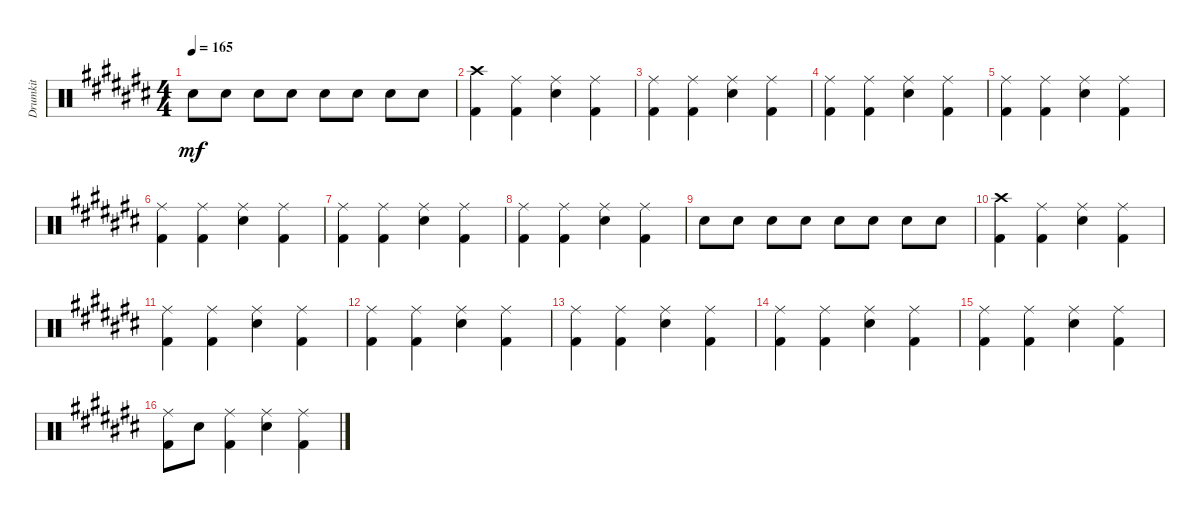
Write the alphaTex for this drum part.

\track ("Drumkit" "Drumkit") {instrument percussion}
\staff {score}
\articulation defaults
\ts (4 4)
\tempo 165
\clef neutral
\ks c# "Snare (hit) 2".8{dy mf} "Snare (hit) 2".8 "Snare (hit) 2".8 "Snare (hit) 2".8 "Snare (hit) 2".8 "Snare (hit) 2".8 "Snare (hit) 2".8 "Snare (hit) 2".8
|
("Kick (hit) 2" "Crash high (hit)").4 ("Kick (hit) 2" "Ride (middle)").4 ("Snare (hit) 2" "Ride (middle)").4 ("Kick (hit) 2" "Ride (middle)").4 |
("Kick (hit) 2" "Ride (middle)").4 ("Kick (hit) 2" "Ride (middle)").4 ("Snare (hit) 2" "Ride (middle)").4 ("Kick (hit) 2" "Ride (middle)").4 |
("Kick (hit) 2" "Ride (middle)").4 ("Kick (hit) 2" "Ride (middle)").4 ("Snare (hit) 2" "Ride (middle)").4 ("Kick (hit) 2" "Ride (middle)").4 |
("Kick (hit) 2" "Ride (middle)").4 ("Kick (hit) 2" "Ride (middle)").4 ("Snare (hit) 2" "Ride (middle)").4 ("Kick (hit) 2" "Ride (middle)").4 |
("Kick (hit) 2" "Ride (middle)").4 ("Kick (hit) 2" "Ride (middle)").4 ("Snare (hit) 2" "Ride (middle)").4 ("Kick (hit) 2" "Ride (middle)").4 |
("Kick (hit) 2" "Ride (middle)").4 ("Kick (hit) 2" "Ride (middle)").4 ("Snare (hit) 2" "Ride (middle)").4 ("Kick (hit) 2" "Ride (middle)").4 |
("Kick (hit) 2" "Ride (middle)").4 ("Kick (hit) 2" "Ride (middle)").4 ("Snare (hit) 2" "Ride (middle)").4 ("Kick (hit) 2" "Ride (middle)").4 |
"Snare (hit) 2".8 "Snare (hit) 2".8 "Snare (hit) 2".8 "Snare (hit) 2".8 "Snare (hit) 2".8 "Snare (hit) 2".8 "Snare (hit) 2".8 "Snare (hit) 2".8 |
("Kick (hit) 2" "Crash high (hit)").4 ("Kick (hit) 2" "Ride (middle)").4 ("Snare (hit) 2" "Ride (middle)").4 ("Kick (hit) 2" "Ride (middle)").4 |
("Kick (hit) 2" "Ride (middle)").4 ("Kick (hit) 2" "Ride (middle)").4 ("Snare (hit) 2" "Ride (middle)").4 ("Kick (hit) 2" "Ride (middle)").4 |
("Kick (hit) 2" "Ride (middle)").4 ("Kick (hit) 2" "Ride (middle)").4 ("Snare (hit) 2" "Ride (middle)").4 ("Kick (hit) 2" "Ride (middle)").4 |
("Kick (hit) 2" "Ride (middle)").4 ("Kick (hit) 2" "Ride (middle)").4 ("Snare (hit) 2" "Ride (middle)").4 ("Kick (hit) 2" "Ride (middle)").4 |
("Kick (hit) 2" "Ride (middle)").4 ("Kick (hit) 2" "Ride (middle)").4 ("Snare (hit) 2" "Ride (middle)").4 ("Kick (hit) 2" "Ride (middle)").4 |
("Kick (hit) 2" "Ride (middle)").4 ("Kick (hit) 2" "Ride (middle)").4 ("Snare (hit) 2" "Ride (middle)").4 ("Kick (hit) 2" "Ride (middle)").4 |
("Kick (hit) 2" "Ride (middle)").8 "Snare (hit) 2".8 ("Kick (hit) 2" "Ride (middle)").4 ("Snare (hit) 2" "Ride (middle)").4 ("Kick (hit) 2" "Ride (middle)").4
